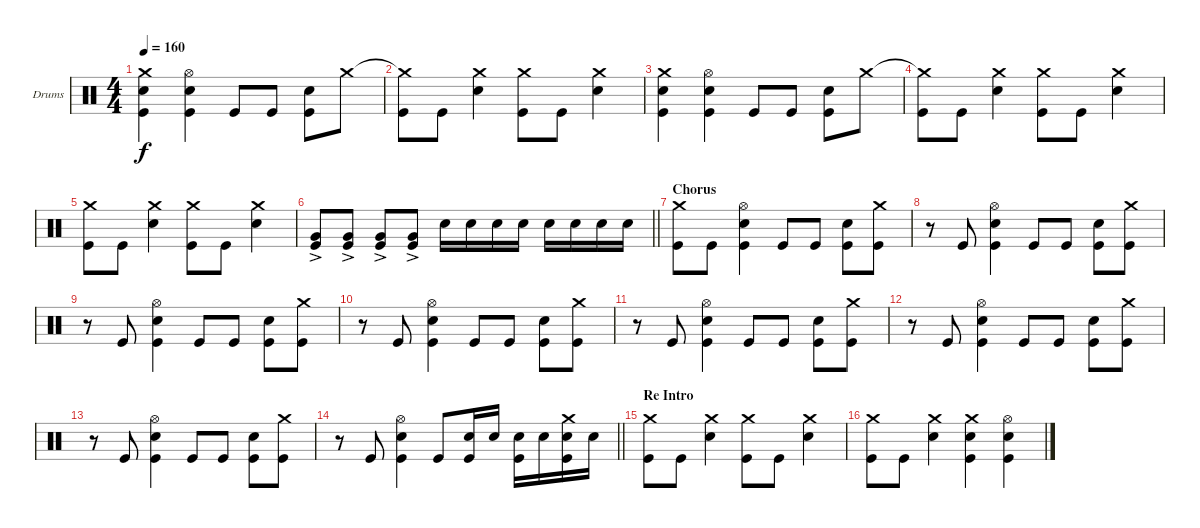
\bracketExtendMode groupsimilarinstruments
\firstSystemTrackNameOrientation horizontal
\otherSystemsTrackNameOrientation horizontal
\track ("Drum" "Drums") {instrument percussion}
\staff {score}
\articulation defaults
\ts (4 4)
\tempo 160
\clef neutral
\ks c
("Crash medium (hit)" "Snare (hit) 2" "Kick (hit)").4{dy f} ("Hi-Hat (open)" "Snare (hit) 2" "Kick (hit)").4 "Kick (hit)".8 "Kick (hit)".8 ("Snare (hit) 2" "Kick (hit)").8 "Crash medium (hit)".8 |
("Crash medium (hit)"{t} "Kick (hit)").8 "Kick (hit)".8 ("Crash medium (hit)" "Snare (hit) 2").4 ("Crash medium (hit)" "Kick (hit)").8 "Kick (hit)".8 ("Crash medium (hit)" "Snare (hit) 2").4 |
("Crash medium (hit)" "Snare (hit) 2" "Kick (hit)").4 ("Hi-Hat (open)" "Snare (hit) 2" "Kick (hit)").4 "Kick (hit)".8 "Kick (hit)".8 ("Snare (hit) 2" "Kick (hit)").8 "Crash medium (hit)".8 |
("Crash medium (hit)"{t} "Kick (hit)").8 "Kick (hit)".8 ("Crash medium (hit)" "Snare (hit) 2").4 ("Crash medium (hit)" "Kick (hit)").8 "Kick (hit)".8 ("Crash medium (hit)" "Snare (hit) 2").4 |
("Crash medium (hit)" "Kick (hit)").8 "Kick (hit)".8 ("Crash medium (hit)" "Snare (hit) 2").4 ("Crash medium (hit)" "Kick (hit)").8 "Kick (hit)".8 ("Crash medium (hit)" "Snare (hit) 2").4 |
\barLineRight lightlight
("Very Low Tom (hit)"{ac} "Kick (hit)").8 ("Very Low Tom (hit)"{ac} "Kick (hit)").8 ("Very Low Tom (hit)"{ac} "Kick (hit)").8 ("Very Low Tom (hit)"{ac} "Kick (hit)").8 "Snare (hit) 2".16 "Snare (hit) 2".16 "Snare (hit) 2".16 "Snare (hit) 2".16 "Snare (hit) 2".16 "Snare (hit) 2".16 "Snare (hit) 2".16 "Snare (hit) 2".16 |
\section ("" "Chorus")
("Crash medium (hit)" "Kick (hit)").8 "Kick (hit)".8 ("Hi-Hat (open)" "Snare (hit) 2" "Kick (hit)").4 "Kick (hit)".8 "Kick (hit)".8 ("Snare (hit) 2" "Kick (hit)").8 ("Crash medium (hit)" "Kick (hit)").8 |
r.8 "Kick (hit)".8 ("Hi-Hat (open)" "Snare (hit) 2" "Kick (hit)").4 "Kick (hit)".8 "Kick (hit)".8 ("Snare (hit) 2" "Kick (hit)").8 ("Crash medium (hit)" "Kick (hit)").8 |
r.8 "Kick (hit)".8 ("Hi-Hat (open)" "Snare (hit) 2" "Kick (hit)").4 "Kick (hit)".8 "Kick (hit)".8 ("Snare (hit) 2" "Kick (hit)").8 ("Crash medium (hit)" "Kick (hit)").8 |
r.8 "Kick (hit)".8 ("Hi-Hat (open)" "Snare (hit) 2" "Kick (hit)").4 "Kick (hit)".8 "Kick (hit)".8 ("Snare (hit) 2" "Kick (hit)").8 ("Crash medium (hit)" "Kick (hit)").8 |
r.8 "Kick (hit)".8 ("Hi-Hat (open)" "Snare (hit) 2" "Kick (hit)").4 "Kick (hit)".8 "Kick (hit)".8 ("Snare (hit) 2" "Kick (hit)").8 ("Crash medium (hit)" "Kick (hit)").8 |
r.8 "Kick (hit)".8 ("Hi-Hat (open)" "Snare (hit) 2" "Kick (hit)").4 "Kick (hit)".8 "Kick (hit)".8 ("Snare (hit) 2" "Kick (hit)").8 ("Crash medium (hit)" "Kick (hit)").8 |
r.8 "Kick (hit)".8 ("Hi-Hat (open)" "Snare (hit) 2" "Kick (hit)").4 "Kick (hit)".8 "Kick (hit)".8 ("Snare (hit) 2" "Kick (hit)").8 ("Crash medium (hit)" "Kick (hit)").8 |
\barLineRight lightlight
r.8 "Kick (hit)".8 ("Hi-Hat (open)" "Snare (hit) 2" "Kick (hit)").4 "Kick (hit)".8 ("Snare (hit) 2" "Kick (hit)").16 "Snare (hit) 2".16 ("Snare (hit) 2" "Kick (hit)").16 "Snare (hit) 2".16 ("Crash medium (hit)" "Snare (hit) 2" "Kick (hit)").16 "Snare (hit) 2".16 |
\section ("" "Re Intro")
("Crash medium (hit)" "Kick (hit)").8 "Kick (hit)".8 ("Crash medium (hit)" "Snare (hit) 2").4 ("Crash medium (hit)" "Kick (hit)").8 "Kick (hit)".8 ("Crash medium (hit)" "Snare (hit) 2").4 |
("Crash medium (hit)" "Kick (hit)").8 "Kick (hit)".8 ("Crash medium (hit)" "Snare (hit) 2").4 ("Crash medium (hit)" "Snare (hit) 2" "Kick (hit)").4 ("Hi-Hat (open)" "Snare (hit) 2" "Kick (hit)").4
